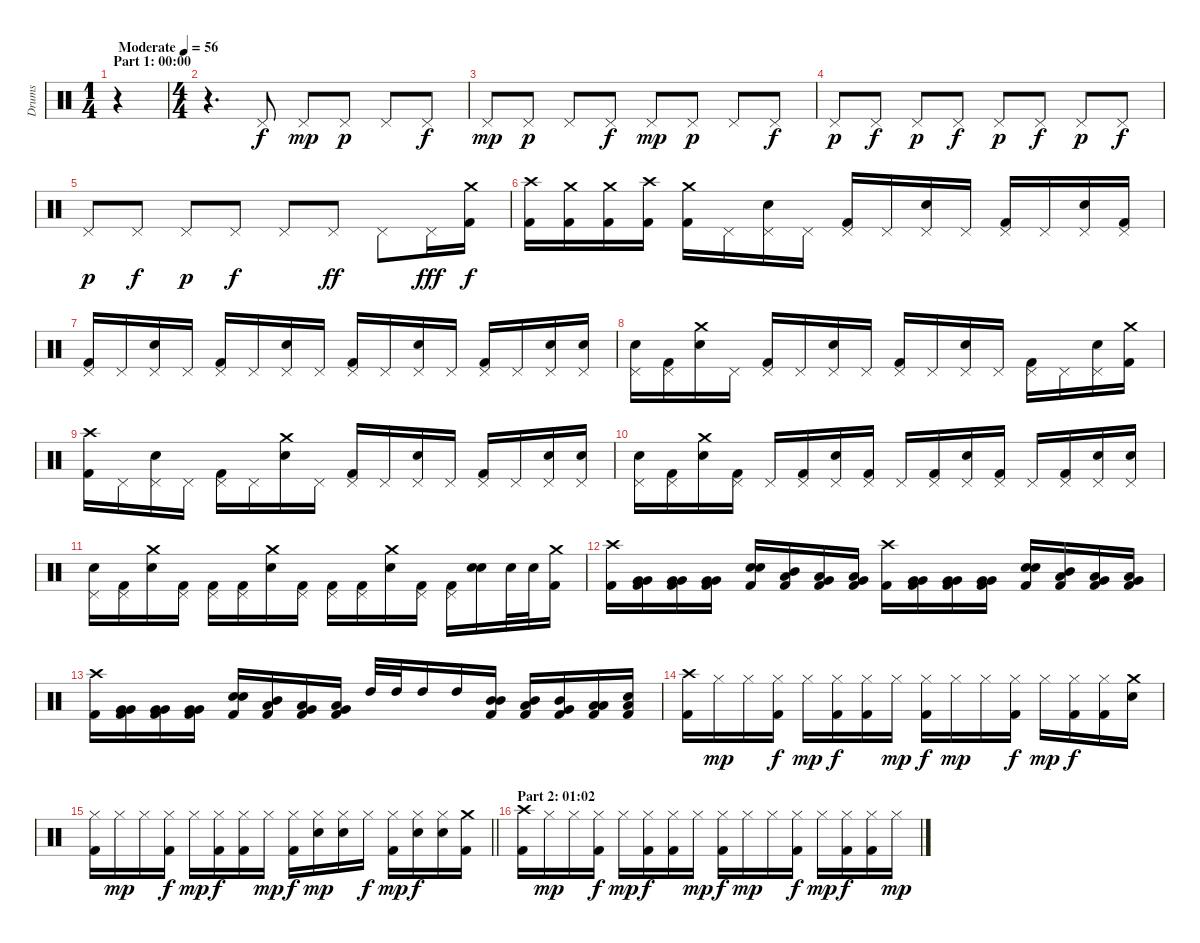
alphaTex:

\track ("Drums" "Drums") {instrument percussion}
\staff {score}
\articulation defaults
\ts (1 4)
\section ("" "Part 1: 00:00")
\tempo (56 "Moderate")
\clef neutral
\ks c
r.4{dy f} |
\ts (4 4)
r.4{d} "Pedal Hi-Hat (hit)".8 "Pedal Hi-Hat (hit)".8{dy mp} "Pedal Hi-Hat (hit)".8{dy p} "Pedal Hi-Hat (hit)".8 "Pedal Hi-Hat (hit)".8{dy f} |
"Pedal Hi-Hat (hit)".8{dy mp} "Pedal Hi-Hat (hit)".8{dy p} "Pedal Hi-Hat (hit)".8 "Pedal Hi-Hat (hit)".8{dy f} "Pedal Hi-Hat (hit)".8{dy mp} "Pedal Hi-Hat (hit)".8{dy p} "Pedal Hi-Hat (hit)".8 "Pedal Hi-Hat (hit)".8{dy f} |
"Pedal Hi-Hat (hit)".8{dy p} "Pedal Hi-Hat (hit)".8{dy f} "Pedal Hi-Hat (hit)".8{dy p} "Pedal Hi-Hat (hit)".8{dy f} "Pedal Hi-Hat (hit)".8{dy p} "Pedal Hi-Hat (hit)".8{dy f} "Pedal Hi-Hat (hit)".8{dy p} "Pedal Hi-Hat (hit)".8{dy f} |
"Pedal Hi-Hat (hit)".8{dy p} "Pedal Hi-Hat (hit)".8{dy f} "Pedal Hi-Hat (hit)".8{dy p} "Pedal Hi-Hat (hit)".8{dy f} "Pedal Hi-Hat (hit)".8 "Pedal Hi-Hat (hit)".8{dy ff} "Pedal Hi-Hat (hit)".8 "Pedal Hi-Hat (hit)".16{dy fff} ("Crash medium (hit)" "Kick (hit) 2").16{dy f} |
("Crash high (hit)" "Kick (hit) 2").16 ("Crash medium (hit)" "Kick (hit) 2").16 ("Crash medium (hit)" "Kick (hit) 2").16 ("Crash high (hit)" "Kick (hit) 2").16 ("Crash medium (hit)" "Kick (hit) 2").16 "Pedal Hi-Hat (hit)".16 ("Pedal Hi-Hat (hit)" "Electric Snare (hit)").16 "Pedal Hi-Hat (hit)".16 ("Pedal Hi-Hat (hit)" "Kick (hit) 2").16 "Pedal Hi-Hat (hit)".16 ("Pedal Hi-Hat (hit)" "Electric Snare (hit)").16 "Pedal Hi-Hat (hit)".16 ("Pedal Hi-Hat (hit)" "Kick (hit) 2").16 "Pedal Hi-Hat (hit)".16 ("Pedal Hi-Hat (hit)" "Electric Snare (hit)").16 ("Pedal Hi-Hat (hit)" "Kick (hit) 2").16 |
("Pedal Hi-Hat (hit)" "Kick (hit) 2").16 "Pedal Hi-Hat (hit)".16 ("Pedal Hi-Hat (hit)" "Electric Snare (hit)").16 "Pedal Hi-Hat (hit)".16 ("Pedal Hi-Hat (hit)" "Kick (hit) 2").16 "Pedal Hi-Hat (hit)".16 ("Pedal Hi-Hat (hit)" "Electric Snare (hit)").16 "Pedal Hi-Hat (hit)".16 ("Pedal Hi-Hat (hit)" "Kick (hit) 2").16 "Pedal Hi-Hat (hit)".16 ("Pedal Hi-Hat (hit)" "Electric Snare (hit)").16 "Pedal Hi-Hat (hit)".16 ("Pedal Hi-Hat (hit)" "Kick (hit) 2").16 "Pedal Hi-Hat (hit)".16 ("Pedal Hi-Hat (hit)" "Electric Snare (hit)").16 ("Pedal Hi-Hat (hit)" "Electric Snare (hit)").16 |
("Pedal Hi-Hat (hit)" "Electric Snare (hit)").16 ("Pedal Hi-Hat (hit)" "Kick (hit) 2").16 ("Crash medium (hit)" "Electric Snare (hit)").16 "Pedal Hi-Hat (hit)".16 ("Pedal Hi-Hat (hit)" "Kick (hit) 2").16 "Pedal Hi-Hat (hit)".16 ("Pedal Hi-Hat (hit)" "Electric Snare (hit)").16 "Pedal Hi-Hat (hit)".16 ("Pedal Hi-Hat (hit)" "Kick (hit) 2").16 "Pedal Hi-Hat (hit)".16 ("Pedal Hi-Hat (hit)" "Electric Snare (hit)").16 "Pedal Hi-Hat (hit)".16 ("Pedal Hi-Hat (hit)" "Kick (hit) 2").16 "Pedal Hi-Hat (hit)".16 ("Pedal Hi-Hat (hit)" "Electric Snare (hit)").16 ("Crash medium (hit)" "Kick (hit) 2").16 |
("Crash high (hit)" "Kick (hit) 2").16 "Pedal Hi-Hat (hit)".16 ("Pedal Hi-Hat (hit)" "Electric Snare (hit)").16 "Pedal Hi-Hat (hit)".16 ("Pedal Hi-Hat (hit)" "Kick (hit) 2").16 "Pedal Hi-Hat (hit)".16 ("Crash medium (hit)" "Electric Snare (hit)").16 "Pedal Hi-Hat (hit)".16 ("Pedal Hi-Hat (hit)" "Kick (hit) 2").16 "Pedal Hi-Hat (hit)".16 ("Pedal Hi-Hat (hit)" "Electric Snare (hit)").16 "Pedal Hi-Hat (hit)".16 ("Pedal Hi-Hat (hit)" "Kick (hit) 2").16 "Pedal Hi-Hat (hit)".16 ("Pedal Hi-Hat (hit)" "Electric Snare (hit)").16 ("Pedal Hi-Hat (hit)" "Electric Snare (hit)").16 |
("Pedal Hi-Hat (hit)" "Electric Snare (hit)").16 ("Pedal Hi-Hat (hit)" "Kick (hit) 2").16 ("Crash medium (hit)" "Electric Snare (hit)").16 ("Pedal Hi-Hat (hit)" "Kick (hit) 2").16 "Pedal Hi-Hat (hit)".16 ("Pedal Hi-Hat (hit)" "Kick (hit) 2").16 ("Pedal Hi-Hat (hit)" "Electric Snare (hit)").16 ("Pedal Hi-Hat (hit)" "Kick (hit) 2").16 "Pedal Hi-Hat (hit)".16 ("Pedal Hi-Hat (hit)" "Kick (hit) 2").16 ("Pedal Hi-Hat (hit)" "Electric Snare (hit)").16 ("Pedal Hi-Hat (hit)" "Kick (hit) 2").16 "Pedal Hi-Hat (hit)".16 ("Pedal Hi-Hat (hit)" "Kick (hit) 2").16 ("Pedal Hi-Hat (hit)" "Electric Snare (hit)").16 ("Pedal Hi-Hat (hit)" "Electric Snare (hit)").16 |
("Pedal Hi-Hat (hit)" "Electric Snare (hit)").16 ("Pedal Hi-Hat (hit)" "Kick (hit) 2").16 ("Crash medium (hit)" "Electric Snare (hit)").16 ("Pedal Hi-Hat (hit)" "Kick (hit) 2").16 ("Pedal Hi-Hat (hit)" "Kick (hit) 2").16 ("Pedal Hi-Hat (hit)" "Kick (hit) 2").16 ("Crash medium (hit)" "Electric Snare (hit)").16 ("Pedal Hi-Hat (hit)" "Kick (hit) 2").16 ("Pedal Hi-Hat (hit)" "Kick (hit) 2").16 ("Pedal Hi-Hat (hit)" "Kick (hit) 2").16 ("Crash medium (hit)" "Electric Snare (hit)").16 ("Pedal Hi-Hat (hit)" "Kick (hit) 2").16 ("Pedal Hi-Hat (hit)" "Kick (hit) 2").16 ("Electric Snare (hit)" "Electric Snare (hit)").16{bd 60} "Electric Snare (hit)".32 "Electric Snare (hit)".32 ("Crash medium (hit)" "Kick (hit) 2").16 |
("Crash high (hit)" "Kick (hit) 2").16 ("Very Low Tom (hit)" "Very Low Tom (hit)" "Kick (hit) 2").16 ("Very Low Tom (hit)" "Very Low Tom (hit)" "Kick (hit) 2").16 ("Very Low Tom (hit)" "Very Low Tom (hit)" "Kick (hit) 2").16 ("Electric Snare (hit)" "Electric Snare (hit)" "Kick (hit) 2").16{bd 30} ("Mid Tom (hit)" "Low Tom (hit)" "Kick (hit) 2").16 ("Low Tom (hit)" "Very Low Tom (hit)" "Kick (hit) 2").16 ("Low Tom (hit)" "Very Low Tom (hit)" "Kick (hit) 2").16 ("Crash high (hit)" "Kick (hit) 2").16 ("Very Low Tom (hit)" "Very Low Tom (hit)" "Kick (hit) 2").16 ("Very Low Tom (hit)" "Very Low Tom (hit)" "Kick (hit) 2").16 ("Very Low Tom (hit)" "Very Low Tom (hit)" "Kick (hit) 2").16 ("Electric Snare (hit)" "Electric Snare (hit)" "Kick (hit) 2").16{bd 30} ("Mid Tom (hit)" "Low Tom (hit)" "Kick (hit) 2").16 ("Low Tom (hit)" "Very Low Tom (hit)" "Kick (hit) 2").16 ("Low Tom (hit)" "Very Low Tom (hit)" "Kick (hit) 2").16 |
("Crash high (hit)" "Kick (hit) 2").16 ("Very Low Tom (hit)" "Very Low Tom (hit)" "Kick (hit) 2").16 ("Very Low Tom (hit)" "Very Low Tom (hit)" "Kick (hit) 2").16 ("Very Low Tom (hit)" "Very Low Tom (hit)" "Kick (hit) 2").16 ("Electric Snare (hit)" "Electric Snare (hit)" "Kick (hit) 2").16{bd 30} ("Mid Tom (hit)" "Low Tom (hit)" "Kick (hit) 2").16 ("Low Tom (hit)" "Very Low Tom (hit)" "Kick (hit) 2").16 ("Low Tom (hit)" "Very Low Tom (hit)" "Kick (hit) 2").16 "High Tom (hit)".32 "High Tom (hit)".32 "High Tom (hit)".16 "High Tom (hit)".16 ("Mid Tom (hit)" "Mid Tom (hit)" "Kick (hit) 2").16 ("Low Tom (hit)" "Mid Tom (hit)" "Kick (hit) 2").16 ("Very Low Tom (hit)" "Mid Tom (hit)" "Kick (hit) 2").16 ("Low Floor Tom (hit)" "Low Tom (hit)" "Kick (hit) 2").16 ("Low Floor Tom (hit)" "Electric Snare (hit)" "Kick (hit) 2").16 |
("Crash high (hit)" "Kick (hit) 2").16 "Hi-Hat (closed)".16{dy mp} "Hi-Hat (closed)".16 ("Hi-Hat (closed)" "Kick (hit) 2").16{dy f} "Hi-Hat (closed)".16{dy mp} ("Hi-Hat (closed)" "Kick (hit) 2").16{dy f} ("Hi-Hat (closed)" "Kick (hit) 2").16 "Hi-Hat (closed)".16{dy mp} ("Hi-Hat (closed)" "Kick (hit) 2").16{dy f} "Hi-Hat (closed)".16{dy mp} "Hi-Hat (closed)".16 ("Hi-Hat (closed)" "Kick (hit) 2").16{dy f} "Hi-Hat (closed)".16{dy mp} ("Hi-Hat (closed)" "Kick (hit) 2").16{dy f} ("Hi-Hat (closed)" "Kick (hit) 2").16 ("Crash medium (hit)" "Electric Snare (hit)").16 |
\barLineRight lightlight
("Hi-Hat (closed)" "Kick (hit) 2").16 "Hi-Hat (closed)".16{dy mp} "Hi-Hat (closed)".16 ("Hi-Hat (closed)" "Kick (hit) 2").16{dy f} "Hi-Hat (closed)".16{dy mp} ("Hi-Hat (closed)" "Kick (hit) 2").16{dy f} ("Hi-Hat (closed)" "Kick (hit) 2").16 "Hi-Hat (closed)".16{dy mp} ("Hi-Hat (closed)" "Kick (hit) 2").16{dy f} ("Hi-Hat (closed)" "Electric Snare (hit)").16{dy mp} ("Hi-Hat (closed)" "Electric Snare (hit)").16 "Hi-Hat (closed)".16{dy f} ("Hi-Hat (closed)" "Kick (hit) 2").16{dy mp} ("Hi-Hat (closed)" "Electric Snare (hit)").16{dy f} ("Hi-Hat (closed)" "Electric Snare (hit)").16 ("Crash medium (hit)" "Kick (hit) 2").16 |
\section ("" "Part 2: 01:02")
("Crash high (hit)" "Kick (hit) 2").16 "Hi-Hat (closed)".16{dy mp} "Hi-Hat (closed)".16 ("Hi-Hat (closed)" "Kick (hit) 2").16{dy f} "Hi-Hat (closed)".16{dy mp} ("Hi-Hat (closed)" "Kick (hit) 2").16{dy f} ("Hi-Hat (closed)" "Kick (hit) 2").16 "Hi-Hat (closed)".16{dy mp} ("Hi-Hat (closed)" "Kick (hit) 2").16{dy f} "Hi-Hat (closed)".16{dy mp} "Hi-Hat (closed)".16 ("Hi-Hat (closed)" "Kick (hit) 2").16{dy f} "Hi-Hat (closed)".16{dy mp} ("Hi-Hat (closed)" "Kick (hit) 2").16{dy f} ("Hi-Hat (closed)" "Kick (hit) 2").16 "Hi-Hat (closed)".16{dy mp}
